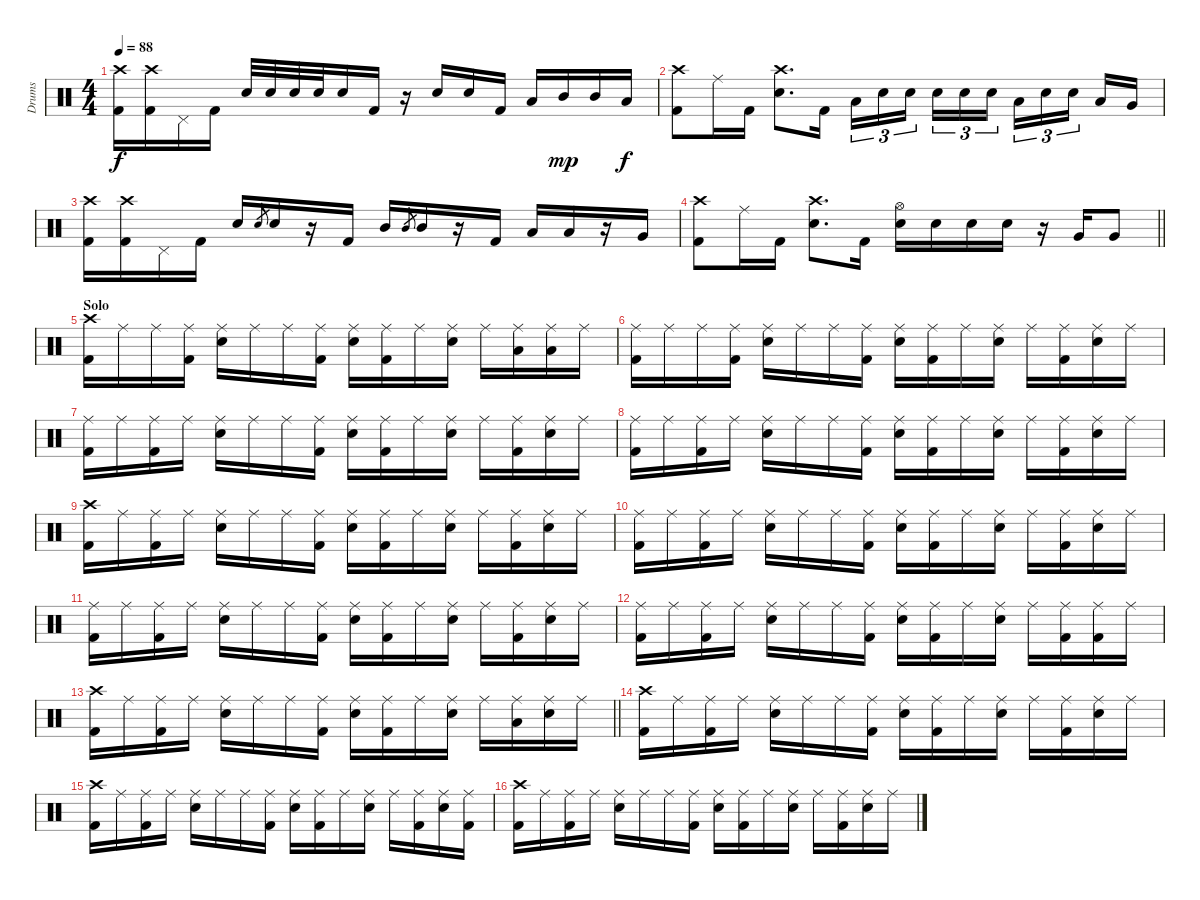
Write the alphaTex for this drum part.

\track ("Drums" "Drums") {instrument percussion}
\staff {score}
\articulation defaults
\ts (4 4)
\tempo 88
\clef neutral
\ks c
("Crash high (hit)" "Kick (hit) 2").16{dy f} ("Crash high (hit)" "Kick (hit) 2").16 "Pedal Hi-Hat (hit)".16 "Kick (hit) 2".16 "Snare (hit) 2".32 "Snare (hit) 2".32 "Snare (hit) 2".32 "Snare (hit) 2".32 "Snare (hit) 2".16 "Kick (hit) 2".16 r.16 "Snare (hit) 2".16 "Snare (hit) 2".16 "Kick (hit) 2".16 "Low Tom (hit)".16 "Mid Tom (hit)".16{dy mp} "Mid Tom (hit)".16 "Low Tom (hit)".16{dy f} |
("Crash high (hit)" "Kick (hit) 2").8 "Ride (middle)".16 "Kick (hit) 2".16 ("Crash high (hit)" "Snare (hit) 2").8{d} "Kick (hit) 2".16 "Low Tom (hit)".16{tu (3 2)} "Snare (hit) 2".16{tu (3 2)} "Snare (hit) 2".16{tu (3 2) beam splitsecondary} "Snare (hit) 2".16{tu (3 2)} "Snare (hit) 2".16{tu (3 2)} "Snare (hit) 2".16{tu (3 2)} "Low Tom (hit)".16{tu (3 2)} "Snare (hit) 2".16{tu (3 2)} "Snare (hit) 2".16{tu (3 2) beam splitsecondary} "Low Tom (hit)".16 "Very Low Tom (hit)".16 |
("Crash high (hit)" "Kick (hit) 2").16 ("Crash high (hit)" "Kick (hit) 2").16 "Pedal Hi-Hat (hit)".16 "Kick (hit) 2".16 "Snare (hit) 2".16 "Snare (hit) 2".8{gr} "Snare (hit) 2".16 r.16 "Kick (hit) 2".16 "Mid Tom (hit)".16 "Mid Tom (hit)".8{gr} "Mid Tom (hit)".16 r.16 "Kick (hit) 2".16 "Low Tom (hit)".16 "Low Tom (hit)".16 r.16 "Very Low Tom (hit)".16 |
\barLineRight lightlight
("Crash high (hit)" "Kick (hit) 2").8 "Ride (middle)".16 "Kick (hit) 2".16 ("Crash high (hit)" "Snare (hit) 2").8{d} "Kick (hit) 2".16 ("Hi-Hat (open)" "Snare (hit) 2").16 "Snare (hit) 2".16 "Snare (hit) 2".16 "Snare (hit) 2".16 r.16 "Very Low Tom (hit)".16 "Very Low Tom (hit)".8 |
\section ("" "Solo")
("Crash high (hit)" "Kick (hit) 2").16 "Ride (middle)".16 "Ride (middle)".16 ("Ride (middle)" "Kick (hit) 2").16 ("Ride (middle)" "Snare (hit) 2").16 "Ride (middle)".16 "Ride (middle)".16 ("Ride (middle)" "Kick (hit) 2").16 ("Ride (middle)" "Snare (hit) 2").16 ("Ride (middle)" "Kick (hit) 2").16 "Ride (middle)".16 ("Ride (middle)" "Snare (hit) 2").16 "Ride (middle)".16 ("Ride (middle)" "Low Tom (hit)").16 ("Ride (middle)" "Low Tom (hit)").16 "Ride (middle)".16 |
("Ride (middle)" "Kick (hit) 2").16 "Ride (middle)".16 "Ride (middle)".16 ("Ride (middle)" "Kick (hit) 2").16 ("Ride (middle)" "Snare (hit) 2").16 "Ride (middle)".16 "Ride (middle)".16 ("Ride (middle)" "Kick (hit) 2").16 ("Ride (middle)" "Snare (hit) 2").16 ("Ride (middle)" "Kick (hit) 2").16 "Ride (middle)".16 ("Ride (middle)" "Snare (hit) 2").16 "Ride (middle)".16 ("Ride (middle)" "Kick (hit) 2").16 ("Ride (middle)" "Snare (hit) 2").16 "Ride (middle)".16 |
("Ride (middle)" "Kick (hit) 2").16 "Ride (middle)".16 ("Ride (middle)" "Kick (hit) 2").16 "Ride (middle)".16 ("Ride (middle)" "Snare (hit) 2").16 "Ride (middle)".16 "Ride (middle)".16 ("Ride (middle)" "Kick (hit) 2").16 ("Ride (middle)" "Snare (hit) 2").16 ("Ride (middle)" "Kick (hit) 2").16 "Ride (middle)".16 ("Ride (middle)" "Snare (hit) 2").16 "Ride (middle)".16 ("Ride (middle)" "Kick (hit) 2").16 ("Ride (middle)" "Snare (hit) 2").16 "Ride (middle)".16 |
("Ride (middle)" "Kick (hit) 2").16 "Ride (middle)".16 ("Ride (middle)" "Kick (hit) 2").16 "Ride (middle)".16 ("Ride (middle)" "Snare (hit) 2").16 "Ride (middle)".16 "Ride (middle)".16 ("Ride (middle)" "Kick (hit) 2").16 ("Ride (middle)" "Snare (hit) 2").16 ("Ride (middle)" "Kick (hit) 2").16 "Ride (middle)".16 ("Ride (middle)" "Snare (hit) 2").16 "Ride (middle)".16 ("Ride (middle)" "Kick (hit) 2").16 ("Ride (middle)" "Snare (hit) 2").16 "Ride (middle)".16 |
("Crash high (hit)" "Kick (hit) 2").16 "Ride (middle)".16 ("Ride (middle)" "Kick (hit) 2").16 "Ride (middle)".16 ("Ride (middle)" "Snare (hit) 2").16 "Ride (middle)".16 "Ride (middle)".16 ("Ride (middle)" "Kick (hit) 2").16 ("Ride (middle)" "Snare (hit) 2").16 ("Ride (middle)" "Kick (hit) 2").16 "Ride (middle)".16 ("Ride (middle)" "Snare (hit) 2").16 "Ride (middle)".16 ("Ride (middle)" "Kick (hit) 2").16 ("Ride (middle)" "Snare (hit) 2").16 "Ride (middle)".16 |
("Ride (middle)" "Kick (hit) 2").16 "Ride (middle)".16 ("Ride (middle)" "Kick (hit) 2").16 "Ride (middle)".16 ("Ride (middle)" "Snare (hit) 2").16 "Ride (middle)".16 "Ride (middle)".16 ("Ride (middle)" "Kick (hit) 2").16 ("Ride (middle)" "Snare (hit) 2").16 ("Ride (middle)" "Kick (hit) 2").16 "Ride (middle)".16 ("Ride (middle)" "Snare (hit) 2").16 "Ride (middle)".16 ("Ride (middle)" "Kick (hit) 2").16 ("Ride (middle)" "Snare (hit) 2").16 "Ride (middle)".16 |
("Ride (middle)" "Kick (hit) 2").16 "Ride (middle)".16 ("Ride (middle)" "Kick (hit) 2").16 "Ride (middle)".16 ("Ride (middle)" "Snare (hit) 2").16 "Ride (middle)".16 "Ride (middle)".16 ("Ride (middle)" "Kick (hit) 2").16 ("Ride (middle)" "Snare (hit) 2").16 ("Ride (middle)" "Kick (hit) 2").16 "Ride (middle)".16 ("Ride (middle)" "Snare (hit) 2").16 "Ride (middle)".16 ("Ride (middle)" "Kick (hit) 2").16 ("Ride (middle)" "Snare (hit) 2").16 "Ride (middle)".16 |
("Ride (middle)" "Kick (hit) 2").16 "Ride (middle)".16 ("Ride (middle)" "Kick (hit) 2").16 "Ride (middle)".16 ("Ride (middle)" "Snare (hit) 2").16 "Ride (middle)".16 "Ride (middle)".16 ("Ride (middle)" "Kick (hit) 2").16 ("Ride (middle)" "Snare (hit) 2").16 ("Ride (middle)" "Kick (hit) 2").16 "Ride (middle)".16 ("Ride (middle)" "Snare (hit) 2").16 "Ride (middle)".16 ("Ride (middle)" "Kick (hit) 2").16 ("Ride (middle)" "Kick (hit) 2").16 "Ride (middle)".16 |
\barLineRight lightlight
("Crash high (hit)" "Kick (hit) 2").16 "Ride (middle)".16 ("Ride (middle)" "Kick (hit) 2").16 "Ride (middle)".16 ("Ride (middle)" "Snare (hit) 2").16 "Ride (middle)".16 "Ride (middle)".16 ("Ride (middle)" "Kick (hit) 2").16 ("Ride (middle)" "Snare (hit) 2").16 ("Ride (middle)" "Kick (hit) 2").16 "Ride (middle)".16 ("Ride (middle)" "Snare (hit) 2").16 "Ride (middle)".16 ("Ride (middle)" "Low Tom (hit)").16 ("Ride (middle)" "Snare (hit) 2").16 "Ride (middle)".16 |
("Crash high (hit)" "Kick (hit) 2").16 "Ride (middle)".16 ("Ride (middle)" "Kick (hit) 2").16 "Ride (middle)".16 ("Ride (middle)" "Snare (hit) 2").16 "Ride (middle)".16 "Ride (middle)".16 ("Ride (middle)" "Kick (hit) 2").16 ("Ride (middle)" "Snare (hit) 2").16 ("Ride (middle)" "Kick (hit) 2").16 "Ride (middle)".16 ("Ride (middle)" "Snare (hit) 2").16 "Ride (middle)".16 ("Ride (middle)" "Kick (hit) 2").16 ("Ride (middle)" "Snare (hit) 2").16 "Ride (middle)".16 |
("Crash high (hit)" "Kick (hit) 2").16 "Ride (middle)".16 ("Ride (middle)" "Kick (hit) 2").16 "Ride (middle)".16 ("Ride (middle)" "Snare (hit) 2").16 "Ride (middle)".16 "Ride (middle)".16 ("Ride (middle)" "Kick (hit) 2").16 ("Ride (middle)" "Snare (hit) 2").16 ("Ride (middle)" "Kick (hit) 2").16 "Ride (middle)".16 ("Ride (middle)" "Snare (hit) 2").16 "Ride (middle)".16 ("Ride (middle)" "Kick (hit) 2").16 ("Ride (middle)" "Snare (hit) 2").16 ("Ride (middle)" "Kick (hit) 2").16 |
("Crash high (hit)" "Kick (hit) 2").16 "Ride (middle)".16 ("Ride (middle)" "Kick (hit) 2").16 "Ride (middle)".16 ("Ride (middle)" "Snare (hit) 2").16 "Ride (middle)".16 "Ride (middle)".16 ("Ride (middle)" "Kick (hit) 2").16 ("Ride (middle)" "Snare (hit) 2").16 ("Ride (middle)" "Kick (hit) 2").16 "Ride (middle)".16 ("Ride (middle)" "Snare (hit) 2").16 "Ride (middle)".16 ("Ride (middle)" "Kick (hit) 2").16 ("Ride (middle)" "Snare (hit) 2").16 "Ride (middle)".16
